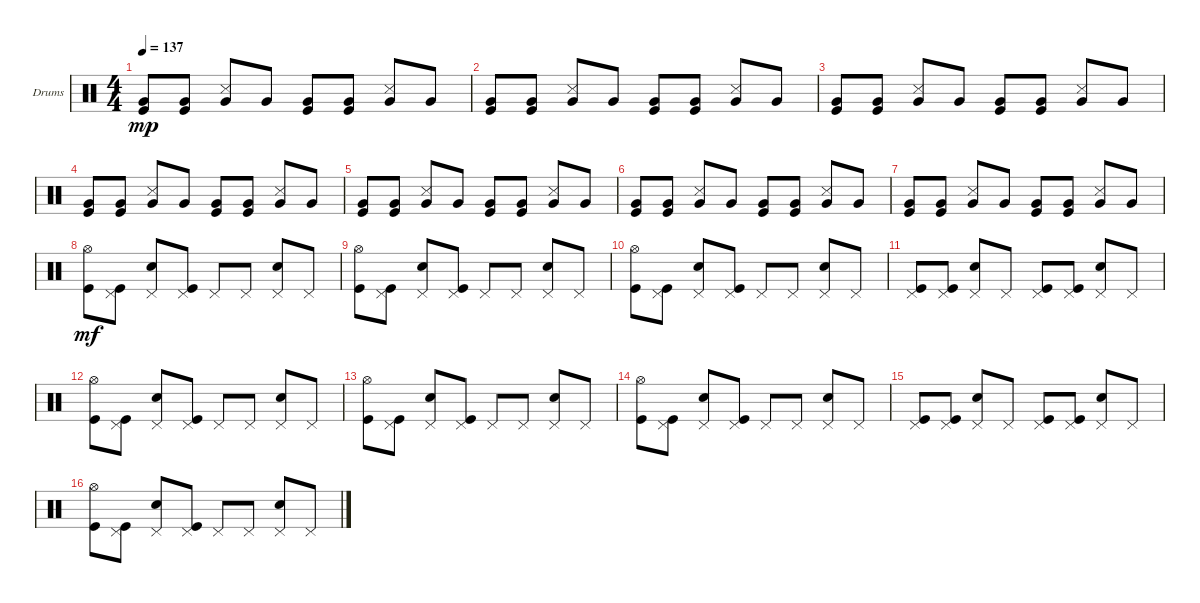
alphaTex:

\bracketExtendMode groupsimilarinstruments
\firstSystemTrackNameOrientation horizontal
\otherSystemsTrackNameOrientation horizontal
\track ("Drumkit (Christoph)" "Drums") {instrument percussion}
\staff {score}
\articulation defaults
\ts (4 4)
\tempo 137
\clef neutral
\ks c
("Very Low Tom (hit)" "Kick (hit)").8{dy mp} ("Very Low Tom (hit)" "Kick (hit)").8 ("Snare (side stick) 3" "Very Low Tom (hit)").8 "Very Low Tom (hit)".8 ("Very Low Tom (hit)" "Kick (hit)").8 ("Very Low Tom (hit)" "Kick (hit)").8 ("Snare (side stick) 3" "Very Low Tom (hit)").8 "Very Low Tom (hit)".8 |
("Very Low Tom (hit)" "Kick (hit)").8 ("Very Low Tom (hit)" "Kick (hit)").8 ("Snare (side stick) 3" "Very Low Tom (hit)").8 "Very Low Tom (hit)".8 ("Very Low Tom (hit)" "Kick (hit)").8 ("Very Low Tom (hit)" "Kick (hit)").8 ("Snare (side stick) 3" "Very Low Tom (hit)").8 "Very Low Tom (hit)".8 |
("Very Low Tom (hit)" "Kick (hit)").8 ("Very Low Tom (hit)" "Kick (hit)").8 ("Snare (side stick) 3" "Very Low Tom (hit)").8 "Very Low Tom (hit)".8 ("Very Low Tom (hit)" "Kick (hit)").8 ("Very Low Tom (hit)" "Kick (hit)").8 ("Snare (side stick) 3" "Very Low Tom (hit)").8 "Very Low Tom (hit)".8 |
("Very Low Tom (hit)" "Kick (hit)").8 ("Very Low Tom (hit)" "Kick (hit)").8 ("Snare (side stick) 3" "Very Low Tom (hit)").8 "Very Low Tom (hit)".8 ("Very Low Tom (hit)" "Kick (hit)").8 ("Very Low Tom (hit)" "Kick (hit)").8 ("Snare (side stick) 3" "Very Low Tom (hit)").8 "Very Low Tom (hit)".8 |
("Very Low Tom (hit)" "Kick (hit)").8 ("Very Low Tom (hit)" "Kick (hit)").8 ("Snare (side stick) 3" "Very Low Tom (hit)").8 "Very Low Tom (hit)".8 ("Very Low Tom (hit)" "Kick (hit)").8 ("Very Low Tom (hit)" "Kick (hit)").8 ("Snare (side stick) 3" "Very Low Tom (hit)").8 "Very Low Tom (hit)".8 |
("Very Low Tom (hit)" "Kick (hit)").8 ("Very Low Tom (hit)" "Kick (hit)").8 ("Snare (side stick) 3" "Very Low Tom (hit)").8 "Very Low Tom (hit)".8 ("Very Low Tom (hit)" "Kick (hit)").8 ("Very Low Tom (hit)" "Kick (hit)").8 ("Snare (side stick) 3" "Very Low Tom (hit)").8 "Very Low Tom (hit)".8 |
("Very Low Tom (hit)" "Kick (hit)").8 ("Very Low Tom (hit)" "Kick (hit)").8 ("Snare (side stick) 3" "Very Low Tom (hit)").8 "Very Low Tom (hit)".8 ("Very Low Tom (hit)" "Kick (hit)").8 ("Very Low Tom (hit)" "Kick (hit)").8 ("Snare (side stick) 3" "Very Low Tom (hit)").8 "Very Low Tom (hit)".8 |
("Hi-Hat (open)" "Kick (hit)").8{dy mf} ("Pedal Hi-Hat (hit)" "Kick (hit)").8 ("Pedal Hi-Hat (hit)" "Snare (hit) 2").8 ("Pedal Hi-Hat (hit)" "Kick (hit)").8 "Pedal Hi-Hat (hit)".8 "Pedal Hi-Hat (hit)".8 ("Pedal Hi-Hat (hit)" "Snare (hit) 2").8 "Pedal Hi-Hat (hit)".8 |
("Hi-Hat (open)" "Kick (hit)").8 ("Pedal Hi-Hat (hit)" "Kick (hit)").8 ("Pedal Hi-Hat (hit)" "Snare (hit) 2").8 ("Pedal Hi-Hat (hit)" "Kick (hit)").8 "Pedal Hi-Hat (hit)".8 "Pedal Hi-Hat (hit)".8 ("Pedal Hi-Hat (hit)" "Snare (hit) 2").8 "Pedal Hi-Hat (hit)".8 |
("Hi-Hat (open)" "Kick (hit)").8 ("Pedal Hi-Hat (hit)" "Kick (hit)").8 ("Pedal Hi-Hat (hit)" "Snare (hit) 2").8 ("Pedal Hi-Hat (hit)" "Kick (hit)").8 "Pedal Hi-Hat (hit)".8 "Pedal Hi-Hat (hit)".8 ("Pedal Hi-Hat (hit)" "Snare (hit) 2").8 "Pedal Hi-Hat (hit)".8 |
("Pedal Hi-Hat (hit)" "Kick (hit)").8 ("Pedal Hi-Hat (hit)" "Kick (hit)").8 ("Pedal Hi-Hat (hit)" "Snare (hit) 2").8 "Pedal Hi-Hat (hit)".8 ("Pedal Hi-Hat (hit)" "Kick (hit)").8 ("Pedal Hi-Hat (hit)" "Kick (hit)").8 ("Pedal Hi-Hat (hit)" "Snare (hit) 2").8 "Pedal Hi-Hat (hit)".8 |
("Hi-Hat (open)" "Kick (hit)").8 ("Pedal Hi-Hat (hit)" "Kick (hit)").8 ("Pedal Hi-Hat (hit)" "Snare (hit) 2").8 ("Pedal Hi-Hat (hit)" "Kick (hit)").8 "Pedal Hi-Hat (hit)".8 "Pedal Hi-Hat (hit)".8 ("Pedal Hi-Hat (hit)" "Snare (hit) 2").8 "Pedal Hi-Hat (hit)".8 |
("Hi-Hat (open)" "Kick (hit)").8 ("Pedal Hi-Hat (hit)" "Kick (hit)").8 ("Pedal Hi-Hat (hit)" "Snare (hit) 2").8 ("Pedal Hi-Hat (hit)" "Kick (hit)").8 "Pedal Hi-Hat (hit)".8 "Pedal Hi-Hat (hit)".8 ("Pedal Hi-Hat (hit)" "Snare (hit) 2").8 "Pedal Hi-Hat (hit)".8 |
("Hi-Hat (open)" "Kick (hit)").8 ("Pedal Hi-Hat (hit)" "Kick (hit)").8 ("Pedal Hi-Hat (hit)" "Snare (hit) 2").8 ("Pedal Hi-Hat (hit)" "Kick (hit)").8 "Pedal Hi-Hat (hit)".8 "Pedal Hi-Hat (hit)".8 ("Pedal Hi-Hat (hit)" "Snare (hit) 2").8 "Pedal Hi-Hat (hit)".8 |
("Pedal Hi-Hat (hit)" "Kick (hit)").8 ("Pedal Hi-Hat (hit)" "Kick (hit)").8 ("Pedal Hi-Hat (hit)" "Snare (hit) 2").8 "Pedal Hi-Hat (hit)".8 ("Pedal Hi-Hat (hit)" "Kick (hit)").8 ("Pedal Hi-Hat (hit)" "Kick (hit)").8 ("Pedal Hi-Hat (hit)" "Snare (hit) 2").8 "Pedal Hi-Hat (hit)".8 |
("Hi-Hat (open)" "Kick (hit)").8 ("Pedal Hi-Hat (hit)" "Kick (hit)").8 ("Pedal Hi-Hat (hit)" "Snare (hit) 2").8 ("Pedal Hi-Hat (hit)" "Kick (hit)").8 "Pedal Hi-Hat (hit)".8 "Pedal Hi-Hat (hit)".8 ("Pedal Hi-Hat (hit)" "Snare (hit) 2").8 "Pedal Hi-Hat (hit)".8
